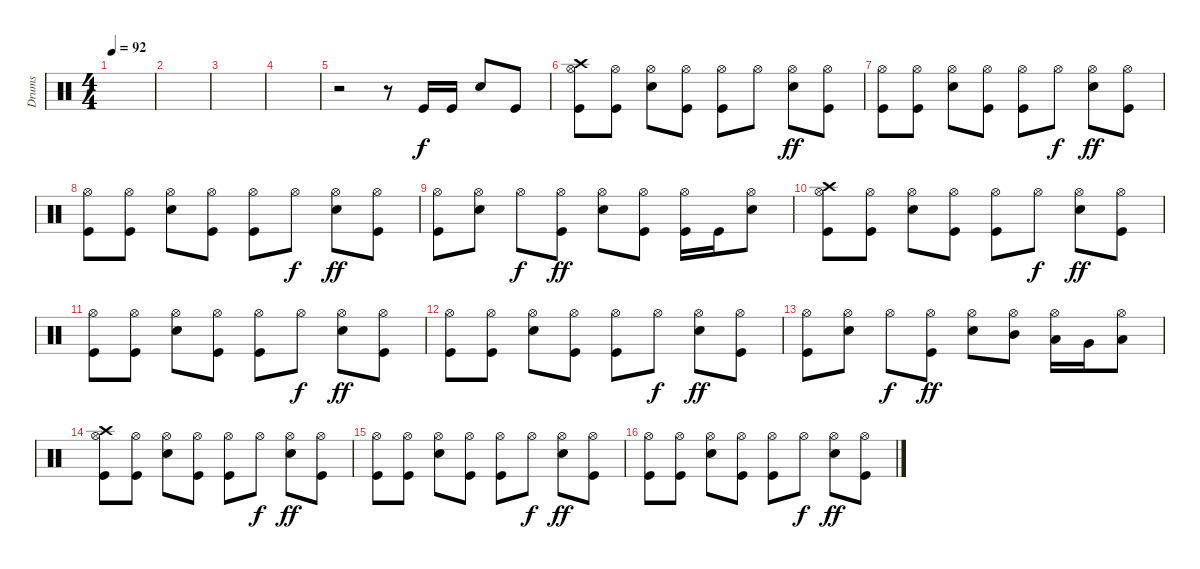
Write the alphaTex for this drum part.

\track ("Drums" "Drums") {instrument percussion}
\staff {score}
\articulation defaults
\ts (4 4)
\tempo 92
\clef neutral
\ks c
|
|
|
|
r.2 r.8 "Kick (hit)".16 "Kick (hit)".16 "Snare (hit) 2".8 "Kick (hit)".8 |
("Hi-Hat (open)" "Crash high (hit)" "Kick (hit)").8 ("Hi-Hat (open)" "Kick (hit)").8 ("Hi-Hat (open)" "Snare (hit) 2").8 ("Hi-Hat (open)" "Kick (hit)").8 ("Hi-Hat (open)" "Kick (hit)").8 "Hi-Hat (open)".8{dy f} ("Hi-Hat (open)" "Snare (hit) 2").8{dy ff} ("Hi-Hat (open)" "Kick (hit)").8 |
("Hi-Hat (open)" "Kick (hit)").8 ("Hi-Hat (open)" "Kick (hit)").8 ("Hi-Hat (open)" "Snare (hit) 2").8 ("Hi-Hat (open)" "Kick (hit)").8 ("Hi-Hat (open)" "Kick (hit)").8 "Hi-Hat (open)".8{dy f} ("Hi-Hat (open)" "Snare (hit) 2").8{dy ff} ("Hi-Hat (open)" "Kick (hit)").8 |
("Hi-Hat (open)" "Kick (hit)").8 ("Hi-Hat (open)" "Kick (hit)").8 ("Hi-Hat (open)" "Snare (hit) 2").8 ("Hi-Hat (open)" "Kick (hit)").8 ("Hi-Hat (open)" "Kick (hit)").8 "Hi-Hat (open)".8{dy f} ("Hi-Hat (open)" "Snare (hit) 2").8{dy ff} ("Hi-Hat (open)" "Kick (hit)").8 |
("Hi-Hat (open)" "Kick (hit)").8 ("Hi-Hat (open)" "Snare (hit) 2").8 "Hi-Hat (open)".8{dy f} ("Hi-Hat (open)" "Kick (hit)").8{dy ff} ("Hi-Hat (open)" "Snare (hit) 2").8 ("Hi-Hat (open)" "Kick (hit)").8 ("Hi-Hat (open)" "Kick (hit)").16 "Kick (hit)".16 ("Hi-Hat (open)" "Snare (hit) 2").8 |
("Hi-Hat (open)" "Crash high (hit)" "Kick (hit)").8 ("Hi-Hat (open)" "Kick (hit)").8 ("Hi-Hat (open)" "Snare (hit) 2").8 ("Hi-Hat (open)" "Kick (hit)").8 ("Hi-Hat (open)" "Kick (hit)").8 "Hi-Hat (open)".8{dy f} ("Hi-Hat (open)" "Snare (hit) 2").8{dy ff} ("Hi-Hat (open)" "Kick (hit)").8 |
("Hi-Hat (open)" "Kick (hit)").8 ("Hi-Hat (open)" "Kick (hit)").8 ("Hi-Hat (open)" "Snare (hit) 2").8 ("Hi-Hat (open)" "Kick (hit)").8 ("Hi-Hat (open)" "Kick (hit)").8 "Hi-Hat (open)".8{dy f} ("Hi-Hat (open)" "Snare (hit) 2").8{dy ff} ("Hi-Hat (open)" "Kick (hit)").8 |
("Hi-Hat (open)" "Kick (hit)").8 ("Hi-Hat (open)" "Kick (hit)").8 ("Hi-Hat (open)" "Snare (hit) 2").8 ("Hi-Hat (open)" "Kick (hit)").8 ("Hi-Hat (open)" "Kick (hit)").8 "Hi-Hat (open)".8{dy f} ("Hi-Hat (open)" "Snare (hit) 2").8{dy ff} ("Hi-Hat (open)" "Kick (hit)").8 |
("Hi-Hat (open)" "Kick (hit)").8 ("Hi-Hat (open)" "Snare (hit) 2").8 "Hi-Hat (open)".8{dy f} ("Hi-Hat (open)" "Kick (hit)").8{dy ff} ("Hi-Hat (open)" "Snare (hit) 2").8 ("Hi-Hat (open)" "Mid Tom (hit)").8 ("Hi-Hat (open)" "Low Tom (hit)").16 "Very Low Tom (hit)".16 ("Hi-Hat (open)" "Low Floor Tom (hit)").8 |
("Hi-Hat (open)" "Crash high (hit)" "Kick (hit)").8 ("Hi-Hat (open)" "Kick (hit)").8 ("Hi-Hat (open)" "Snare (hit) 2").8 ("Hi-Hat (open)" "Kick (hit)").8 ("Hi-Hat (open)" "Kick (hit)").8 "Hi-Hat (open)".8{dy f} ("Hi-Hat (open)" "Snare (hit) 2").8{dy ff} ("Hi-Hat (open)" "Kick (hit)").8 |
("Hi-Hat (open)" "Kick (hit)").8 ("Hi-Hat (open)" "Kick (hit)").8 ("Hi-Hat (open)" "Snare (hit) 2").8 ("Hi-Hat (open)" "Kick (hit)").8 ("Hi-Hat (open)" "Kick (hit)").8 "Hi-Hat (open)".8{dy f} ("Hi-Hat (open)" "Snare (hit) 2").8{dy ff} ("Hi-Hat (open)" "Kick (hit)").8 |
("Hi-Hat (open)" "Kick (hit)").8 ("Hi-Hat (open)" "Kick (hit)").8 ("Hi-Hat (open)" "Snare (hit) 2").8 ("Hi-Hat (open)" "Kick (hit)").8 ("Hi-Hat (open)" "Kick (hit)").8 "Hi-Hat (open)".8{dy f} ("Hi-Hat (open)" "Snare (hit) 2").8{dy ff} ("Hi-Hat (open)" "Kick (hit)").8
